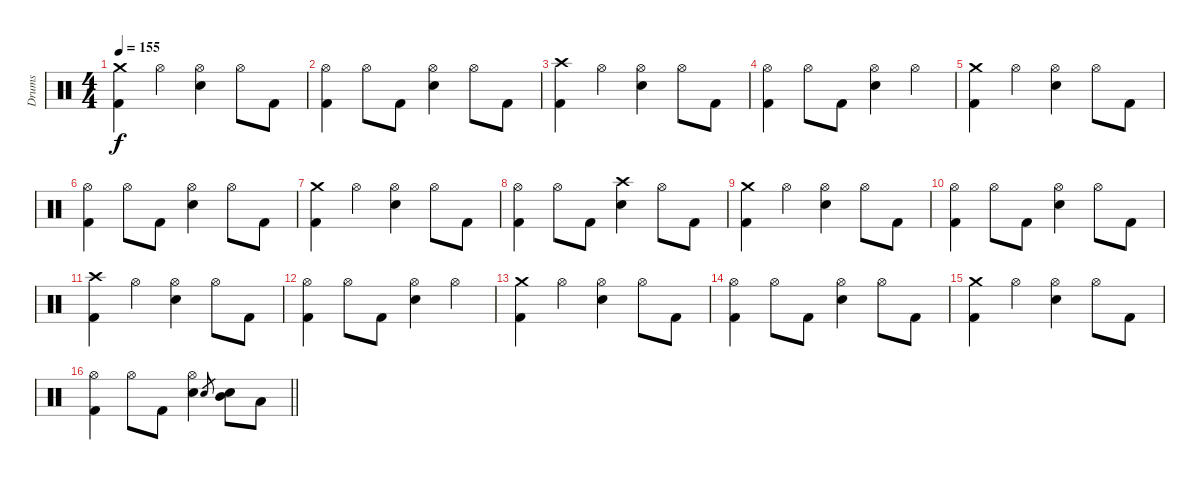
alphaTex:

\track ("Drums" "Drums") {instrument percussion}
\staff {score}
\articulation defaults
\ts (4 4)
\tempo 155
\clef neutral
\ks c
("Crash medium (hit)" "Kick (hit) 2").4{dy f} "Hi-Hat (open)".4 ("Hi-Hat (open)" "Electric Snare (hit)").4 "Hi-Hat (open)".8 "Kick (hit) 2".8 |
("Hi-Hat (open)" "Kick (hit) 2").4 "Hi-Hat (open)".8 "Kick (hit) 2".8 ("Hi-Hat (open)" "Electric Snare (hit)").4 "Hi-Hat (open)".8 "Kick (hit) 2".8 |
("Crash high (hit)" "Kick (hit) 2").4 "Hi-Hat (open)".4 ("Hi-Hat (open)" "Electric Snare (hit)").4 "Hi-Hat (open)".8 "Kick (hit) 2".8 |
("Hi-Hat (open)" "Kick (hit) 2").4 "Hi-Hat (open)".8 "Kick (hit) 2".8 ("Hi-Hat (open)" "Electric Snare (hit)").4 "Hi-Hat (open)".4 |
("Crash medium (hit)" "Kick (hit) 2").4 "Hi-Hat (open)".4 ("Hi-Hat (open)" "Electric Snare (hit)").4 "Hi-Hat (open)".8 "Kick (hit) 2".8 |
("Hi-Hat (open)" "Kick (hit) 2").4 "Hi-Hat (open)".8 "Kick (hit) 2".8 ("Hi-Hat (open)" "Electric Snare (hit)").4 "Hi-Hat (open)".8 "Kick (hit) 2".8 |
("Crash medium (hit)" "Kick (hit) 2").4 "Hi-Hat (open)".4 ("Hi-Hat (open)" "Electric Snare (hit)").4 "Hi-Hat (open)".8 "Kick (hit) 2".8 |
("Hi-Hat (open)" "Kick (hit) 2").4 "Hi-Hat (open)".8 "Kick (hit) 2".8 ("Crash high (hit)" "Electric Snare (hit)").4 "Hi-Hat (open)".8 "Kick (hit) 2".8 |
("Crash medium (hit)" "Kick (hit) 2").4 "Hi-Hat (open)".4 ("Hi-Hat (open)" "Electric Snare (hit)").4 "Hi-Hat (open)".8 "Kick (hit) 2".8 |
("Hi-Hat (open)" "Kick (hit) 2").4 "Hi-Hat (open)".8 "Kick (hit) 2".8 ("Hi-Hat (open)" "Electric Snare (hit)").4 "Hi-Hat (open)".8 "Kick (hit) 2".8 |
("Crash high (hit)" "Kick (hit) 2").4 "Hi-Hat (open)".4 ("Hi-Hat (open)" "Electric Snare (hit)").4 "Hi-Hat (open)".8 "Kick (hit) 2".8 |
("Hi-Hat (open)" "Kick (hit) 2").4 "Hi-Hat (open)".8 "Kick (hit) 2".8 ("Hi-Hat (open)" "Electric Snare (hit)").4 "Hi-Hat (open)".4 |
("Crash medium (hit)" "Kick (hit) 2").4 "Hi-Hat (open)".4 ("Hi-Hat (open)" "Electric Snare (hit)").4 "Hi-Hat (open)".8 "Kick (hit) 2".8 |
("Hi-Hat (open)" "Kick (hit) 2").4 "Hi-Hat (open)".8 "Kick (hit) 2".8 ("Hi-Hat (open)" "Electric Snare (hit)").4 "Hi-Hat (open)".8 "Kick (hit) 2".8 |
("Crash medium (hit)" "Kick (hit) 2").4 "Hi-Hat (open)".4 ("Hi-Hat (open)" "Electric Snare (hit)").4 "Hi-Hat (open)".8 "Kick (hit) 2".8 |
\barLineRight lightlight
("Hi-Hat (open)" "Kick (hit) 2").4 "Hi-Hat (open)".8 "Kick (hit) 2".8 ("Hi-Hat (open)" "Electric Snare (hit)").4 "Electric Snare (hit)".8{gr} ("Electric Snare (hit)" "Mid Tom (hit)").8 "Low Tom (hit)".8
